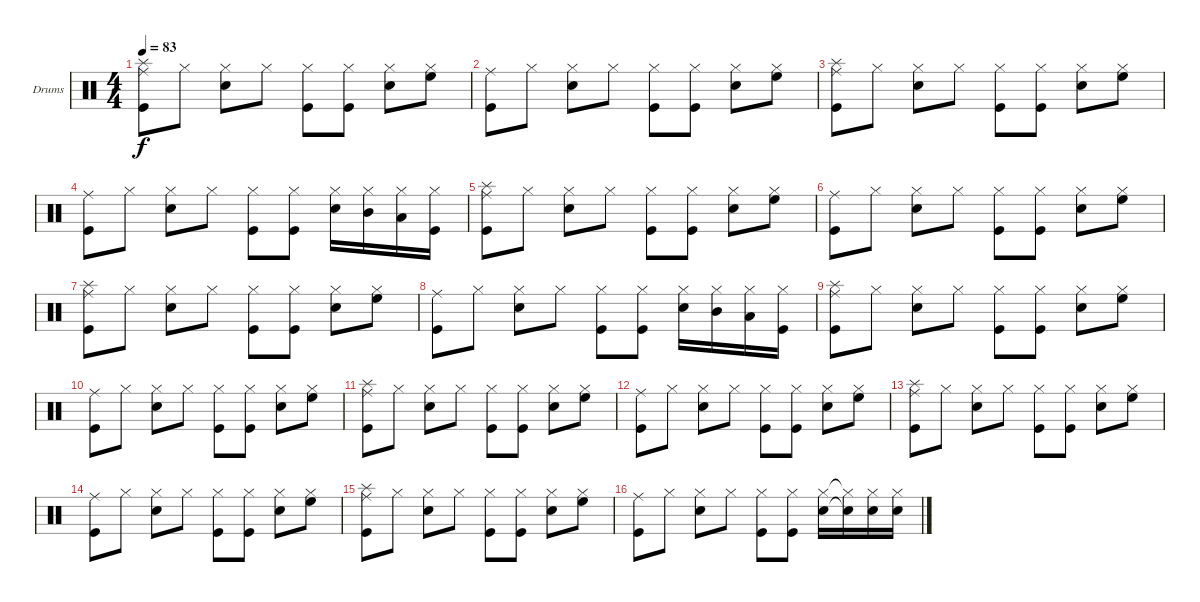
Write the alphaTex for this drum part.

\defaultSystemsLayout 4
\bracketExtendMode groupsimilarinstruments
\firstSystemTrackNameOrientation horizontal
\otherSystemsTrackNameOrientation horizontal
\track ("Reza" "Drums") {instrument percussion}
\staff {score}
\articulation defaults
\ts (4 4)
\tempo 83
\clef neutral
\ks c
("Kick (hit)" "Splash (hit)" "Ride (middle)").8{dy f} "Hi-Hat (closed)".8 ("Hi-Hat (closed)" "Snare (hit) 2").8 "Hi-Hat (closed)".8 ("Hi-Hat (closed)" "Kick (hit)").8 ("Hi-Hat (closed)" "Kick (hit)").8 ("Hi-Hat (closed)" "Snare (hit) 2").8 ("Hi-Hat (closed)" "High Floor Tom (hit)").8 |
("Kick (hit)" "Ride (middle)").8 "Hi-Hat (closed)".8 ("Hi-Hat (closed)" "Snare (hit) 2").8 "Hi-Hat (closed)".8 ("Hi-Hat (closed)" "Kick (hit)").8 ("Hi-Hat (closed)" "Kick (hit)").8 ("Hi-Hat (closed)" "Snare (hit) 2").8 ("Hi-Hat (closed)" "High Floor Tom (hit)").8 |
("Kick (hit)" "Splash (hit)" "Ride (middle)").8 "Hi-Hat (closed)".8 ("Hi-Hat (closed)" "Snare (hit) 2").8 "Hi-Hat (closed)".8 ("Hi-Hat (closed)" "Kick (hit)").8 ("Hi-Hat (closed)" "Kick (hit)").8 ("Hi-Hat (closed)" "Snare (hit) 2").8 ("Hi-Hat (closed)" "High Floor Tom (hit)").8 |
("Kick (hit)" "Ride (middle)").8 "Hi-Hat (closed)".8 ("Hi-Hat (closed)" "Snare (hit) 2").8 "Hi-Hat (closed)".8 ("Hi-Hat (closed)" "Kick (hit)").8 ("Hi-Hat (closed)" "Kick (hit)").8 ("Hi-Hat (closed)" "Snare (hit) 2").16 ("Hi-Hat (closed)" "Mid Tom (hit)").16 ("Hi-Hat (closed)" "Low Tom (hit)").16 ("Hi-Hat (closed)" "Kick (hit)").16 |
("Kick (hit)" "Splash (hit)" "Ride (middle)").8 "Hi-Hat (closed)".8 ("Hi-Hat (closed)" "Snare (hit) 2").8 "Hi-Hat (closed)".8 ("Hi-Hat (closed)" "Kick (hit)").8 ("Hi-Hat (closed)" "Kick (hit)").8 ("Hi-Hat (closed)" "Snare (hit) 2").8 ("Hi-Hat (closed)" "High Floor Tom (hit)").8 |
("Kick (hit)" "Ride (middle)").8 "Hi-Hat (closed)".8 ("Hi-Hat (closed)" "Snare (hit) 2").8 "Hi-Hat (closed)".8 ("Hi-Hat (closed)" "Kick (hit)").8 ("Hi-Hat (closed)" "Kick (hit)").8 ("Hi-Hat (closed)" "Snare (hit) 2").8 ("Hi-Hat (closed)" "High Floor Tom (hit)").8 |
("Kick (hit)" "Splash (hit)" "Ride (middle)").8 "Hi-Hat (closed)".8 ("Hi-Hat (closed)" "Snare (hit) 2").8 "Hi-Hat (closed)".8 ("Hi-Hat (closed)" "Kick (hit)").8 ("Hi-Hat (closed)" "Kick (hit)").8 ("Hi-Hat (closed)" "Snare (hit) 2").8 ("Hi-Hat (closed)" "High Floor Tom (hit)").8 |
("Kick (hit)" "Ride (middle)").8 "Hi-Hat (closed)".8 ("Hi-Hat (closed)" "Snare (hit) 2").8 "Hi-Hat (closed)".8 ("Hi-Hat (closed)" "Kick (hit)").8 ("Hi-Hat (closed)" "Kick (hit)").8 ("Hi-Hat (closed)" "Snare (hit) 2").16 ("Hi-Hat (closed)" "Mid Tom (hit)").16 ("Hi-Hat (closed)" "Low Tom (hit)").16 ("Hi-Hat (closed)" "Kick (hit)").16 |
("Kick (hit)" "Splash (hit)" "Ride (middle)").8 "Hi-Hat (closed)".8 ("Hi-Hat (closed)" "Snare (hit) 2").8 "Hi-Hat (closed)".8 ("Hi-Hat (closed)" "Kick (hit)").8 ("Hi-Hat (closed)" "Kick (hit)").8 ("Hi-Hat (closed)" "Snare (hit) 2").8 ("Hi-Hat (closed)" "High Floor Tom (hit)").8 |
("Kick (hit)" "Ride (middle)").8 "Hi-Hat (closed)".8 ("Hi-Hat (closed)" "Snare (hit) 2").8 "Hi-Hat (closed)".8 ("Hi-Hat (closed)" "Kick (hit)").8 ("Hi-Hat (closed)" "Kick (hit)").8 ("Hi-Hat (closed)" "Snare (hit) 2").8 ("Hi-Hat (closed)" "High Floor Tom (hit)").8 |
("Kick (hit)" "Splash (hit)" "Ride (middle)").8 "Hi-Hat (closed)".8 ("Hi-Hat (closed)" "Snare (hit) 2").8 "Hi-Hat (closed)".8 ("Hi-Hat (closed)" "Kick (hit)").8 ("Hi-Hat (closed)" "Kick (hit)").8 ("Hi-Hat (closed)" "Snare (hit) 2").8 ("Hi-Hat (closed)" "High Floor Tom (hit)").8 |
("Kick (hit)" "Ride (middle)").8 "Hi-Hat (closed)".8 ("Hi-Hat (closed)" "Snare (hit) 2").8 "Hi-Hat (closed)".8 ("Hi-Hat (closed)" "Kick (hit)").8 ("Hi-Hat (closed)" "Kick (hit)").8 ("Hi-Hat (closed)" "Snare (hit) 2").8 ("Hi-Hat (closed)" "High Floor Tom (hit)").8 |
("Kick (hit)" "Splash (hit)" "Ride (middle)").8 "Hi-Hat (closed)".8 ("Hi-Hat (closed)" "Snare (hit) 2").8 "Hi-Hat (closed)".8 ("Hi-Hat (closed)" "Kick (hit)").8 ("Hi-Hat (closed)" "Kick (hit)").8 ("Hi-Hat (closed)" "Snare (hit) 2").8 ("Hi-Hat (closed)" "High Floor Tom (hit)").8 |
("Kick (hit)" "Ride (middle)").8 "Hi-Hat (closed)".8 ("Hi-Hat (closed)" "Snare (hit) 2").8 "Hi-Hat (closed)".8 ("Hi-Hat (closed)" "Kick (hit)").8 ("Hi-Hat (closed)" "Kick (hit)").8 ("Hi-Hat (closed)" "Snare (hit) 2").8 ("Hi-Hat (closed)" "High Floor Tom (hit)").8 |
("Kick (hit)" "Splash (hit)" "Ride (middle)").8 "Hi-Hat (closed)".8 ("Hi-Hat (closed)" "Snare (hit) 2").8 "Hi-Hat (closed)".8 ("Hi-Hat (closed)" "Kick (hit)").8 ("Hi-Hat (closed)" "Kick (hit)").8 ("Hi-Hat (closed)" "Snare (hit) 2").8 ("Hi-Hat (closed)" "High Floor Tom (hit)").8 |
("Kick (hit)" "Ride (middle)").8 "Hi-Hat (closed)".8 ("Hi-Hat (closed)" "Snare (hit) 2").8 "Hi-Hat (closed)".8 ("Hi-Hat (closed)" "Kick (hit)").8 ("Hi-Hat (closed)" "Kick (hit)").8 ("Hi-Hat (closed)" "Snare (hit) 2").16 ("Hi-Hat (closed)"{t} "Snare (hit) 2"{t}).16 ("Hi-Hat (closed)" "Snare (hit) 2").16 ("Hi-Hat (closed)" "Snare (hit) 2").16
